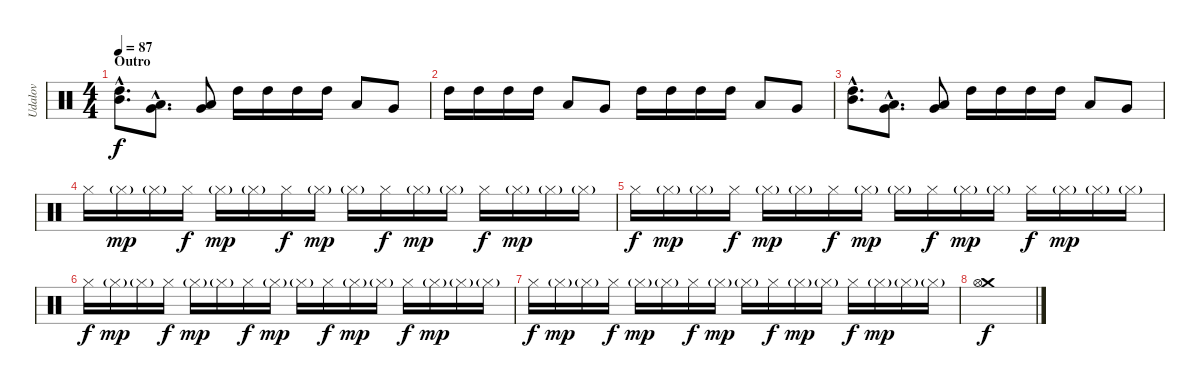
\track ("Udalov" "Udalov") {instrument percussion}
\staff {score}
\articulation defaults
\ts (4 4)
\section ("" "Outro")
\tempo 87
\clef neutral
\ks c
("High Tom (hit)"{hac} "Mid Tom (hit)"{hac}).8{d dy f} ("Low Tom (hit)"{hac} "Very Low Tom (hit)"{hac}).8{d} ("Very Low Tom (hit)" "Low Floor Tom (hit)").8 "High Tom (hit)".16 "High Tom (hit)".16 "High Tom (hit)".16 "High Tom (hit)".16 "Low Tom (hit)".8 "Very Low Tom (hit)".8 |
"High Tom (hit)".16 "High Tom (hit)".16 "High Tom (hit)".16 "High Tom (hit)".16 "Low Tom (hit)".8 "Very Low Tom (hit)".8 "High Tom (hit)".16 "High Tom (hit)".16 "High Tom (hit)".16 "High Tom (hit)".16 "Low Tom (hit)".8 "Very Low Tom (hit)".8 |
("High Tom (hit)"{hac} "Mid Tom (hit)"{hac}).8{d} ("Low Tom (hit)"{hac} "Very Low Tom (hit)"{hac}).8{d} ("Very Low Tom (hit)" "Low Floor Tom (hit)").8 "High Tom (hit)".16 "High Tom (hit)".16 "High Tom (hit)".16 "High Tom (hit)".16 "Low Tom (hit)".8 "Very Low Tom (hit)".8 |
"Hi-Hat (closed)".16 "Hi-Hat (closed)"{g}.16{dy mp} "Hi-Hat (closed)"{g}.16 "Hi-Hat (closed)".16{dy f} "Hi-Hat (closed)"{g}.16{dy mp} "Hi-Hat (closed)"{g}.16 "Hi-Hat (closed)".16{dy f} "Hi-Hat (closed)"{g}.16{dy mp} "Hi-Hat (closed)"{g}.16 "Hi-Hat (closed)".16{dy f} "Hi-Hat (closed)"{g}.16{dy mp} "Hi-Hat (closed)"{g}.16 "Hi-Hat (closed)".16{dy f} "Hi-Hat (closed)"{g}.16{dy mp} "Hi-Hat (closed)"{g}.16 "Hi-Hat (closed)"{g}.16 |
"Hi-Hat (closed)".16{dy f} "Hi-Hat (closed)"{g}.16{dy mp} "Hi-Hat (closed)"{g}.16 "Hi-Hat (closed)".16{dy f} "Hi-Hat (closed)"{g}.16{dy mp} "Hi-Hat (closed)"{g}.16 "Hi-Hat (closed)".16{dy f} "Hi-Hat (closed)"{g}.16{dy mp} "Hi-Hat (closed)"{g}.16 "Hi-Hat (closed)".16{dy f} "Hi-Hat (closed)"{g}.16{dy mp} "Hi-Hat (closed)"{g}.16 "Hi-Hat (closed)".16{dy f} "Hi-Hat (closed)"{g}.16{dy mp} "Hi-Hat (closed)"{g}.16 "Hi-Hat (closed)"{g}.16 |
"Hi-Hat (closed)".16{dy f} "Hi-Hat (closed)"{g}.16{dy mp} "Hi-Hat (closed)"{g}.16 "Hi-Hat (closed)".16{dy f} "Hi-Hat (closed)"{g}.16{dy mp} "Hi-Hat (closed)"{g}.16 "Hi-Hat (closed)".16{dy f} "Hi-Hat (closed)"{g}.16{dy mp} "Hi-Hat (closed)"{g}.16 "Hi-Hat (closed)".16{dy f} "Hi-Hat (closed)"{g}.16{dy mp} "Hi-Hat (closed)"{g}.16 "Hi-Hat (closed)".16{dy f} "Hi-Hat (closed)"{g}.16{dy mp} "Hi-Hat (closed)"{g}.16 "Hi-Hat (closed)"{g}.16 |
"Hi-Hat (closed)".16{dy f} "Hi-Hat (closed)"{g}.16{dy mp} "Hi-Hat (closed)"{g}.16 "Hi-Hat (closed)".16{dy f} "Hi-Hat (closed)"{g}.16{dy mp} "Hi-Hat (closed)"{g}.16 "Hi-Hat (closed)".16{dy f} "Hi-Hat (closed)"{g}.16{dy mp} "Hi-Hat (closed)"{g}.16 "Hi-Hat (closed)".16{dy f} "Hi-Hat (closed)"{g}.16{dy mp} "Hi-Hat (closed)"{g}.16 "Hi-Hat (closed)".16{dy f} "Hi-Hat (closed)"{g}.16{dy mp} "Hi-Hat (closed)"{g}.16 "Hi-Hat (closed)"{g}.16 |
("Crash medium (hit)" "Hi-Hat (open)").1{dy f}
